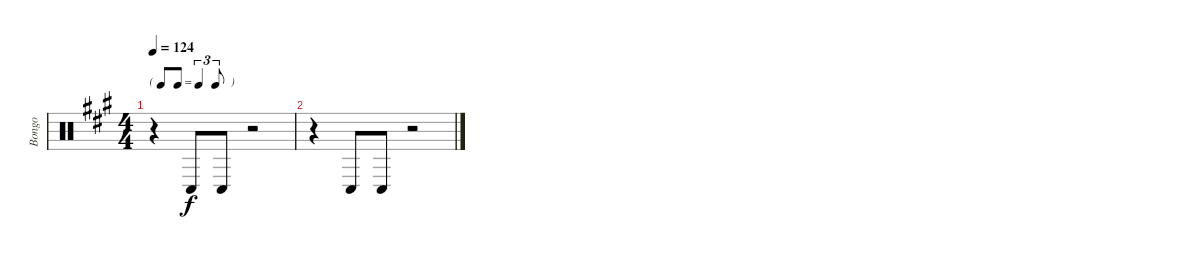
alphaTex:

\track ("Bongo" "Bongo") {instrument percussion}
\staff {score}
\articulation defaults
\ts (4 4)
\tf triplet8th
\tempo 124
\clef neutral
\ks a
r.4{dy f} "Conga low (hit)".8 "Conga low (hit)".8 r.2 |
r.4 "Conga low (hit)".8 "Conga low (hit)".8 r.2
